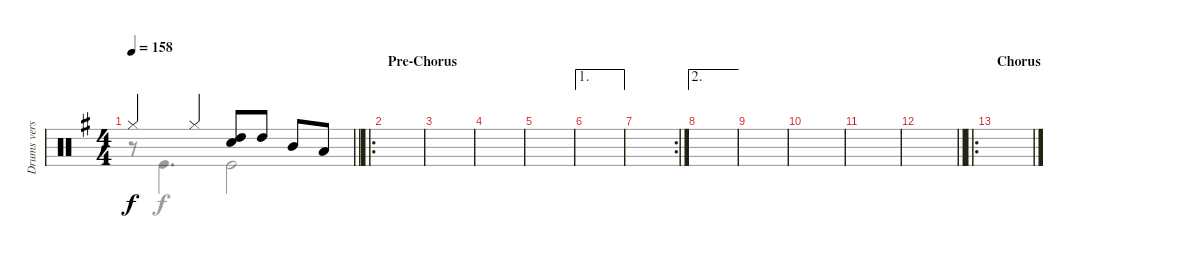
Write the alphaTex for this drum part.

\track ("Drums verse-support" "Drums vers") {instrument percussion}
\staff {score}
\articulation defaults
\voice
\ts (4 4)
\tempo 158
\clef neutral
\barLineRight lightlight
\ks eminor "Hi-Hat (closed)".4{dy f} "Hi-Hat (closed)".4
("High Tom (hit)" "Electric Snare (hit)").8 "High Tom (hit)".8 "Mid Tom (hit)".8 "Low Tom (hit)".8 |
\ro
\section ("" "Pre-Chorus")
|
|
|
|
\ae 1
|
\rc 2
|
\ae 2
|
|
|
|
\barLineRight lightlight
|
\ro
\section ("" "Chorus")
|
|
|
\voice
\clef neutral
\ottava regular
\simile none
\barLineRight lightlight
\ks eminor
r.8{dy f} "Kick (hit)".4{d} "Kick (hit)".2 |
|
|
|
|
|
|
|
|
|
|
\barLineRight lightlight
|
|
|
|
